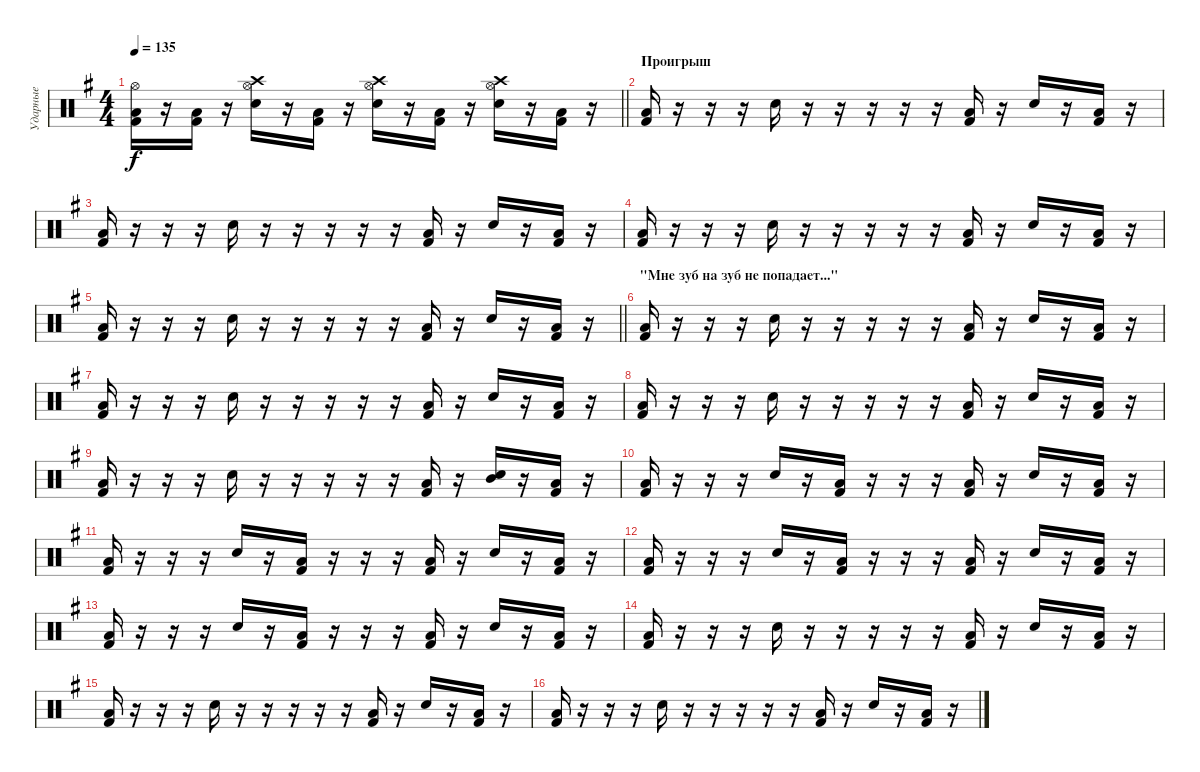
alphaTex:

\track ("Ударные" "Ударные") {instrument percussion}
\staff {score}
\articulation defaults
\ts (4 4)
\tempo 135
\clef neutral
\barLineRight lightlight
\ks eminor
("Hi-Hat (open)" "Low Floor Tom (hit)" "Kick (hit) 2").16{dy f} r.16 ("Low Floor Tom (hit)" "Kick (hit) 2").16 r.16 ("Crash high (hit)" "Hi-Hat (open)" "Electric Snare (hit)").16 r.16 ("Low Floor Tom (hit)" "Kick (hit) 2").16 r.16 ("Crash high (hit)" "Hi-Hat (open)" "Electric Snare (hit)").16 r.16 ("Low Floor Tom (hit)" "Kick (hit) 2").16 r.16 ("Crash high (hit)" "Hi-Hat (open)" "Electric Snare (hit)").16 r.16 ("Low Floor Tom (hit)" "Kick (hit) 2").16 r.16 |
\section ("" "Проигрыш")
("Low Floor Tom (hit)" "Kick (hit) 2").16 r.16 r.16 r.16 "Electric Snare (hit)".16 r.16 r.16 r.16 r.16 r.16 ("Low Floor Tom (hit)" "Kick (hit) 2").16 r.16 "Electric Snare (hit)".16 r.16 ("Low Floor Tom (hit)" "Kick (hit) 2").16 r.16 |
("Low Floor Tom (hit)" "Kick (hit) 2").16 r.16 r.16 r.16 "Electric Snare (hit)".16 r.16 r.16 r.16 r.16 r.16 ("Low Floor Tom (hit)" "Kick (hit) 2").16 r.16 "Electric Snare (hit)".16 r.16 ("Low Floor Tom (hit)" "Kick (hit) 2").16 r.16 |
("Low Floor Tom (hit)" "Kick (hit) 2").16 r.16 r.16 r.16 "Electric Snare (hit)".16 r.16 r.16 r.16 r.16 r.16 ("Low Floor Tom (hit)" "Kick (hit) 2").16 r.16 "Electric Snare (hit)".16 r.16 ("Low Floor Tom (hit)" "Kick (hit) 2").16 r.16 |
\barLineRight lightlight
("Low Floor Tom (hit)" "Kick (hit) 2").16 r.16 r.16 r.16 "Electric Snare (hit)".16 r.16 r.16 r.16 r.16 r.16 ("Low Floor Tom (hit)" "Kick (hit) 2").16 r.16 "Electric Snare (hit)".16 r.16 ("Low Floor Tom (hit)" "Kick (hit) 2").16 r.16 |
\section ("" "\"Мне зуб на зуб не попадает...\"")
("Low Floor Tom (hit)" "Kick (hit) 2").16 r.16 r.16 r.16 "Electric Snare (hit)".16 r.16 r.16 r.16 r.16 r.16 ("Low Floor Tom (hit)" "Kick (hit) 2").16 r.16 "Electric Snare (hit)".16 r.16 ("Low Floor Tom (hit)" "Kick (hit) 2").16 r.16 |
("Low Floor Tom (hit)" "Kick (hit) 2").16 r.16 r.16 r.16 "Electric Snare (hit)".16 r.16 r.16 r.16 r.16 r.16 ("Low Floor Tom (hit)" "Kick (hit) 2").16 r.16 "Electric Snare (hit)".16 r.16 ("Low Floor Tom (hit)" "Kick (hit) 2").16 r.16 |
("Low Floor Tom (hit)" "Kick (hit) 2").16 r.16 r.16 r.16 "Electric Snare (hit)".16 r.16 r.16 r.16 r.16 r.16 ("Low Floor Tom (hit)" "Kick (hit) 2").16 r.16 "Electric Snare (hit)".16 r.16 ("Low Floor Tom (hit)" "Kick (hit) 2").16 r.16 |
("Low Floor Tom (hit)" "Kick (hit) 2").16 r.16 r.16 r.16 "Electric Snare (hit)".16 r.16 r.16 r.16 r.16 r.16 ("Low Floor Tom (hit)" "Kick (hit) 2").16 r.16 ("Electric Snare (hit)" "Mid Tom (hit)").16 r.16 ("Low Floor Tom (hit)" "Kick (hit) 2").16 r.16 |
("Low Floor Tom (hit)" "Kick (hit) 2").16 r.16 r.16 r.16 "Electric Snare (hit)".16 r.16 ("Low Floor Tom (hit)" "Kick (hit) 2").16 r.16 r.16 r.16 ("Low Floor Tom (hit)" "Kick (hit) 2").16 r.16 "Electric Snare (hit)".16 r.16 ("Low Floor Tom (hit)" "Kick (hit) 2").16 r.16 |
("Low Floor Tom (hit)" "Kick (hit) 2").16 r.16 r.16 r.16 "Electric Snare (hit)".16 r.16 ("Low Floor Tom (hit)" "Kick (hit) 2").16 r.16 r.16 r.16 ("Low Floor Tom (hit)" "Kick (hit) 2").16 r.16 "Electric Snare (hit)".16 r.16 ("Low Floor Tom (hit)" "Kick (hit) 2").16 r.16 |
("Low Floor Tom (hit)" "Kick (hit) 2").16 r.16 r.16 r.16 "Electric Snare (hit)".16 r.16 ("Low Floor Tom (hit)" "Kick (hit) 2").16 r.16 r.16 r.16 ("Low Floor Tom (hit)" "Kick (hit) 2").16 r.16 "Electric Snare (hit)".16 r.16 ("Low Floor Tom (hit)" "Kick (hit) 2").16 r.16 |
("Low Floor Tom (hit)" "Kick (hit) 2").16 r.16 r.16 r.16 "Electric Snare (hit)".16 r.16 ("Low Floor Tom (hit)" "Kick (hit) 2").16 r.16 r.16 r.16 ("Low Floor Tom (hit)" "Kick (hit) 2").16 r.16 "Electric Snare (hit)".16 r.16 ("Low Floor Tom (hit)" "Kick (hit) 2").16 r.16 |
("Low Floor Tom (hit)" "Kick (hit) 2").16 r.16 r.16 r.16 "Electric Snare (hit)".16 r.16 r.16 r.16 r.16 r.16 ("Low Floor Tom (hit)" "Kick (hit) 2").16 r.16 "Electric Snare (hit)".16 r.16 ("Low Floor Tom (hit)" "Kick (hit) 2").16 r.16 |
("Low Floor Tom (hit)" "Kick (hit) 2").16 r.16 r.16 r.16 "Electric Snare (hit)".16 r.16 r.16 r.16 r.16 r.16 ("Low Floor Tom (hit)" "Kick (hit) 2").16 r.16 "Electric Snare (hit)".16 r.16 ("Low Floor Tom (hit)" "Kick (hit) 2").16 r.16 |
("Low Floor Tom (hit)" "Kick (hit) 2").16 r.16 r.16 r.16 "Electric Snare (hit)".16 r.16 r.16 r.16 r.16 r.16 ("Low Floor Tom (hit)" "Kick (hit) 2").16 r.16 "Electric Snare (hit)".16 r.16 ("Low Floor Tom (hit)" "Kick (hit) 2").16 r.16
